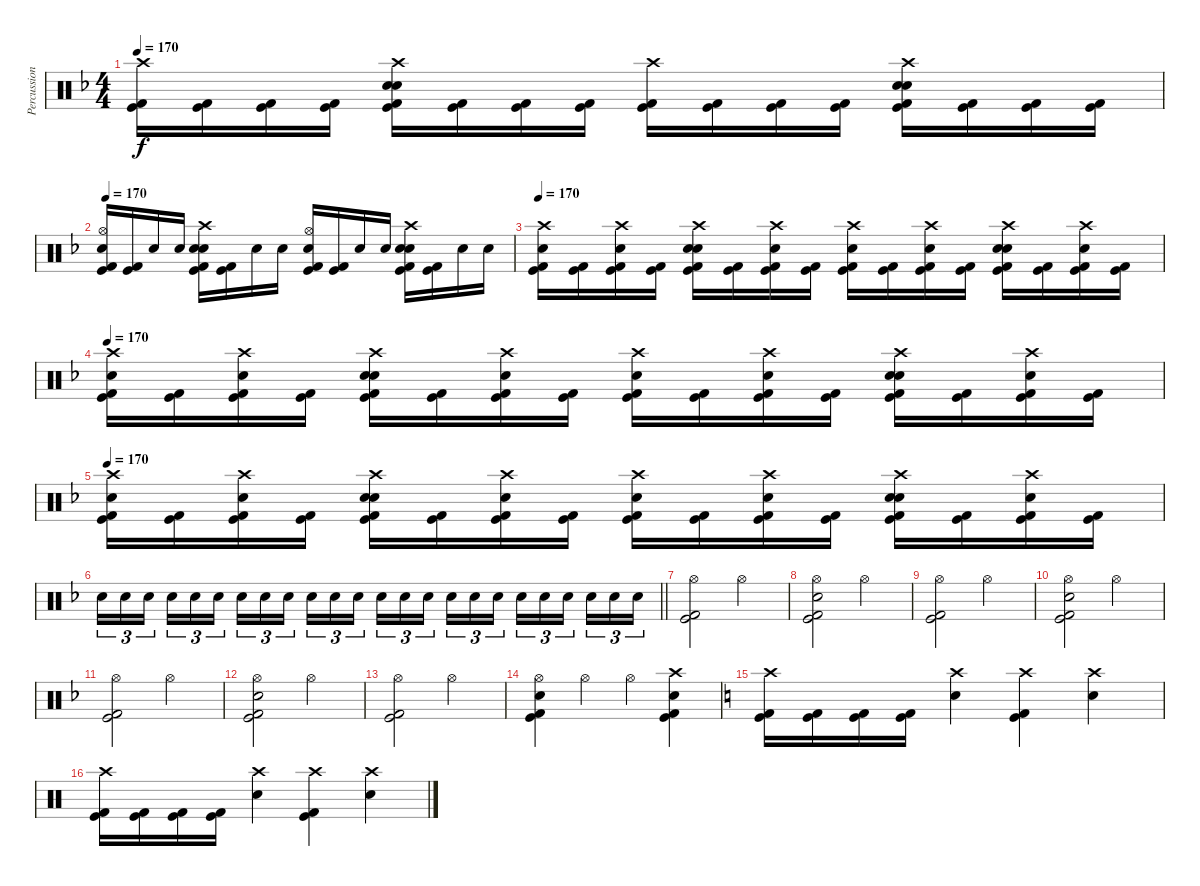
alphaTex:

\track ("Percussion" "Percussion") {instrument percussion}
\staff {score}
\articulation defaults
\ts (4 4)
\tempo 170
\clef neutral
\ks dminor
("Crash high (hit)" "Kick (hit) 2" "Kick (hit)").16{dy f} ("Kick (hit) 2" "Kick (hit)").16 ("Kick (hit) 2" "Kick (hit)").16 ("Kick (hit) 2" "Kick (hit)").16 ("Crash high (hit)" "Electric Snare (hit)" "Electric Snare (hit)" "Kick (hit) 2" "Kick (hit)").16 ("Kick (hit) 2" "Kick (hit)").16 ("Kick (hit) 2" "Kick (hit)").16 ("Kick (hit) 2" "Kick (hit)").16 ("Crash high (hit)" "Kick (hit) 2" "Kick (hit)").16 ("Kick (hit) 2" "Kick (hit)").16 ("Kick (hit) 2" "Kick (hit)").16 ("Kick (hit) 2" "Kick (hit)").16 ("Crash high (hit)" "Electric Snare (hit)" "Electric Snare (hit)" "Kick (hit) 2" "Kick (hit)").16 ("Kick (hit) 2" "Kick (hit)").16 ("Kick (hit) 2" "Kick (hit)").16 ("Kick (hit) 2" "Kick (hit)").16 |
\tempo 170
("Hi-Hat (open)" "Snare (hit) 2" "Kick (hit) 2" "Kick (hit)").16 ("Kick (hit) 2" "Kick (hit)").16 "Electric Snare (hit)".16 "Electric Snare (hit)".16 ("Crash high (hit)" "Electric Snare (hit)" "Electric Snare (hit)" "Kick (hit) 2" "Kick (hit)").16 ("Kick (hit) 2" "Kick (hit)").16 "Electric Snare (hit)".16 "Electric Snare (hit)".16 ("Hi-Hat (open)" "Snare (hit) 2" "Kick (hit) 2" "Kick (hit)").16 ("Kick (hit) 2" "Kick (hit)").16 "Electric Snare (hit)".16 "Electric Snare (hit)".16 ("Crash high (hit)" "Electric Snare (hit)" "Electric Snare (hit)" "Kick (hit) 2" "Kick (hit)").16 ("Kick (hit) 2" "Kick (hit)").16 "Electric Snare (hit)".16 "Electric Snare (hit)".16 |
\tempo 170
("Crash high (hit)" "Electric Snare (hit)" "Kick (hit) 2" "Kick (hit)").16 ("Kick (hit) 2" "Kick (hit)").16 ("Crash high (hit)" "Electric Snare (hit)" "Kick (hit) 2" "Kick (hit)").16 ("Kick (hit) 2" "Kick (hit)").16 ("Crash high (hit)" "Electric Snare (hit)" "Electric Snare (hit)" "Kick (hit) 2" "Kick (hit)").16 ("Kick (hit) 2" "Kick (hit)").16 ("Crash high (hit)" "Electric Snare (hit)" "Kick (hit) 2" "Kick (hit)").16 ("Kick (hit) 2" "Kick (hit)").16 ("Crash high (hit)" "Electric Snare (hit)" "Kick (hit) 2" "Kick (hit)").16 ("Kick (hit) 2" "Kick (hit)").16 ("Crash high (hit)" "Electric Snare (hit)" "Kick (hit) 2" "Kick (hit)").16 ("Kick (hit) 2" "Kick (hit)").16 ("Crash high (hit)" "Electric Snare (hit)" "Electric Snare (hit)" "Kick (hit) 2" "Kick (hit)").16 ("Kick (hit) 2" "Kick (hit)").16 ("Crash high (hit)" "Electric Snare (hit)" "Kick (hit) 2" "Kick (hit)").16 ("Kick (hit) 2" "Kick (hit)").16 |
\tempo 170
("Crash high (hit)" "Electric Snare (hit)" "Kick (hit) 2" "Kick (hit)").16 ("Kick (hit) 2" "Kick (hit)").16 ("Crash high (hit)" "Electric Snare (hit)" "Kick (hit) 2" "Kick (hit)").16 ("Kick (hit) 2" "Kick (hit)").16 ("Crash high (hit)" "Electric Snare (hit)" "Electric Snare (hit)" "Kick (hit) 2" "Kick (hit)").16 ("Kick (hit) 2" "Kick (hit)").16 ("Crash high (hit)" "Electric Snare (hit)" "Kick (hit) 2" "Kick (hit)").16 ("Kick (hit) 2" "Kick (hit)").16 ("Crash high (hit)" "Electric Snare (hit)" "Kick (hit) 2" "Kick (hit)").16 ("Kick (hit) 2" "Kick (hit)").16 ("Crash high (hit)" "Electric Snare (hit)" "Kick (hit) 2" "Kick (hit)").16 ("Kick (hit) 2" "Kick (hit)").16 ("Crash high (hit)" "Electric Snare (hit)" "Electric Snare (hit)" "Kick (hit) 2" "Kick (hit)").16 ("Kick (hit) 2" "Kick (hit)").16 ("Crash high (hit)" "Electric Snare (hit)" "Kick (hit) 2" "Kick (hit)").16 ("Kick (hit) 2" "Kick (hit)").16 |
\tempo 170
("Crash high (hit)" "Electric Snare (hit)" "Kick (hit) 2" "Kick (hit)").16 ("Kick (hit) 2" "Kick (hit)").16 ("Crash high (hit)" "Electric Snare (hit)" "Kick (hit) 2" "Kick (hit)").16 ("Kick (hit) 2" "Kick (hit)").16 ("Crash high (hit)" "Electric Snare (hit)" "Electric Snare (hit)" "Kick (hit) 2" "Kick (hit)").16 ("Kick (hit) 2" "Kick (hit)").16 ("Crash high (hit)" "Electric Snare (hit)" "Kick (hit) 2" "Kick (hit)").16 ("Kick (hit) 2" "Kick (hit)").16 ("Crash high (hit)" "Electric Snare (hit)" "Kick (hit) 2" "Kick (hit)").16 ("Kick (hit) 2" "Kick (hit)").16 ("Crash high (hit)" "Electric Snare (hit)" "Kick (hit) 2" "Kick (hit)").16 ("Kick (hit) 2" "Kick (hit)").16 ("Crash high (hit)" "Electric Snare (hit)" "Electric Snare (hit)" "Kick (hit) 2" "Kick (hit)").16 ("Kick (hit) 2" "Kick (hit)").16 ("Crash high (hit)" "Electric Snare (hit)" "Kick (hit) 2" "Kick (hit)").16 ("Kick (hit) 2" "Kick (hit)").16 |
\barLineRight lightlight "Electric Snare (hit)".16{tu (3 2)} "Electric Snare (hit)".16{tu (3 2)} "Electric Snare (hit)".16{tu (3 2) beam splitsecondary} "Electric Snare (hit)".16{tu (3 2)} "Electric Snare (hit)".16{tu (3 2)} "Electric Snare (hit)".16{tu (3 2)} "Electric Snare (hit)".16{tu (3 2)} "Electric Snare (hit)".16{tu (3 2)} "Electric Snare (hit)".16{tu (3 2) beam splitsecondary} "Electric Snare (hit)".16{tu (3 2)} "Electric Snare (hit)".16{tu (3 2)} "Electric Snare (hit)".16{tu (3 2)} "Electric Snare (hit)".16{tu (3 2)} "Electric Snare (hit)".16{tu (3 2)} "Electric Snare (hit)".16{tu (3 2) beam splitsecondary} "Electric Snare (hit)".16{tu (3 2)} "Electric Snare (hit)".16{tu (3 2)} "Electric Snare (hit)".16{tu (3 2)} "Electric Snare (hit)".16{tu (3 2)} "Electric Snare (hit)".16{tu (3 2)} "Electric Snare (hit)".16{tu (3 2) beam splitsecondary} "Electric Snare (hit)".16{tu (3 2)} "Electric Snare (hit)".16{tu (3 2)} "Electric Snare (hit)".16{tu (3 2)}
|
\section ("" "")
("Hi-Hat (open)" "Kick (hit) 2" "Kick (hit)").2 "Hi-Hat (open)".2 |
("Hi-Hat (open)" "Electric Snare (hit)" "Kick (hit) 2" "Kick (hit)").2 "Hi-Hat (open)".2 |
("Hi-Hat (open)" "Kick (hit) 2" "Kick (hit)").2 "Hi-Hat (open)".2 |
("Hi-Hat (open)" "Electric Snare (hit)" "Kick (hit) 2" "Kick (hit)").2 "Hi-Hat (open)".2 |
("Hi-Hat (open)" "Kick (hit) 2" "Kick (hit)").2 "Hi-Hat (open)".2 |
("Hi-Hat (open)" "Electric Snare (hit)" "Kick (hit) 2" "Kick (hit)").2 "Hi-Hat (open)".2 |
("Hi-Hat (open)" "Kick (hit) 2" "Kick (hit)").2 "Hi-Hat (open)".2 |
("Hi-Hat (open)" "Electric Snare (hit)" "Kick (hit) 2" "Kick (hit)").4 "Hi-Hat (open)".4 "Hi-Hat (open)".4 ("Crash high (hit)" "Snare (hit) 2" "Kick (hit)" "Kick (hit) 2").4 |
\ks c
("Crash high (hit)" "Kick (hit) 2" "Kick (hit)").16 ("Kick (hit) 2" "Kick (hit)").16 ("Kick (hit) 2" "Kick (hit)").16 ("Kick (hit) 2" "Kick (hit)").16 ("Crash high (hit)" "Electric Snare (hit)").4 ("Crash high (hit)" "Kick (hit) 2" "Kick (hit)").4 ("Crash high (hit)" "Electric Snare (hit)").4 |
("Crash high (hit)" "Kick (hit) 2" "Kick (hit)").16 ("Kick (hit) 2" "Kick (hit)").16 ("Kick (hit) 2" "Kick (hit)").16 ("Kick (hit) 2" "Kick (hit)").16 ("Crash high (hit)" "Electric Snare (hit)").4 ("Crash high (hit)" "Kick (hit) 2" "Kick (hit)").4 ("Crash high (hit)" "Electric Snare (hit)").4
